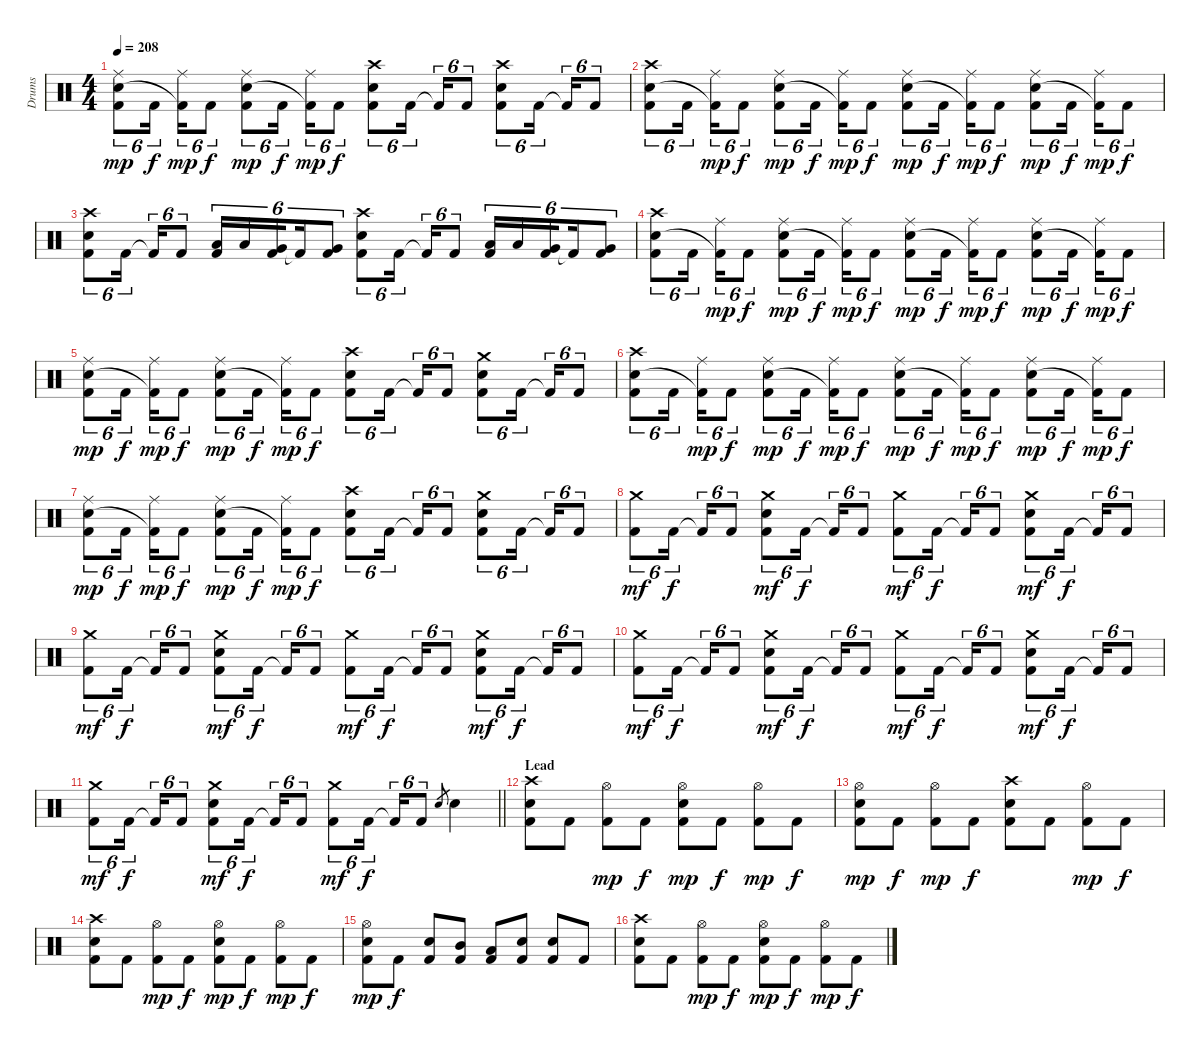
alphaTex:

\track ("Drums" "Drums") {instrument percussion}
\staff {score}
\articulation defaults
\ts (4 4)
\tempo 208
\clef neutral
\ks c
("Ride (middle)" "Electric Snare (hit)" "Kick (hit) 2").8{tu (6 4) dy mp} "Kick (hit) 2".16{tu (6 4) dy f beam splitsecondary} ("Ride (middle)" "Kick (hit) 2"{t}).16{tu (6 4) dy mp} "Kick (hit) 2".8{tu (6 4) dy f} ("Ride (middle)" "Electric Snare (hit)" "Kick (hit) 2").8{tu (6 4) dy mp} "Kick (hit) 2".16{tu (6 4) dy f beam splitsecondary} ("Ride (middle)" "Kick (hit) 2"{t}).16{tu (6 4) dy mp} "Kick (hit) 2".8{tu (6 4) dy f} ("Crash high (hit)" "Electric Snare (hit)" "Kick (hit) 2").8{tu (6 4)} "Kick (hit) 2".16{tu (6 4) beam splitsecondary} "Kick (hit) 2"{t}.16{tu (6 4)} "Kick (hit) 2".8{tu (6 4)} ("Crash high (hit)" "Electric Snare (hit)" "Kick (hit) 2").8{tu (6 4)} "Kick (hit) 2".16{tu (6 4) beam splitsecondary} "Kick (hit) 2"{t}.16{tu (6 4)} "Kick (hit) 2".8{tu (6 4)} |
("Crash high (hit)" "Electric Snare (hit)" "Kick (hit) 2").8{tu (6 4)} "Kick (hit) 2".16{tu (6 4) beam splitsecondary} ("Ride (middle)" "Kick (hit) 2"{t}).16{tu (6 4) dy mp} "Kick (hit) 2".8{tu (6 4) dy f} ("Ride (middle)" "Electric Snare (hit)" "Kick (hit) 2").8{tu (6 4) dy mp} "Kick (hit) 2".16{tu (6 4) dy f beam splitsecondary} ("Ride (middle)" "Kick (hit) 2"{t}).16{tu (6 4) dy mp} "Kick (hit) 2".8{tu (6 4) dy f} ("Ride (middle)" "Electric Snare (hit)" "Kick (hit) 2").8{tu (6 4) dy mp} "Kick (hit) 2".16{tu (6 4) dy f beam splitsecondary} ("Ride (middle)" "Kick (hit) 2"{t}).16{tu (6 4) dy mp} "Kick (hit) 2".8{tu (6 4) dy f} ("Ride (middle)" "Electric Snare (hit)" "Kick (hit) 2").8{tu (6 4) dy mp} "Kick (hit) 2".16{tu (6 4) dy f beam splitsecondary} ("Ride (middle)" "Kick (hit) 2"{t}).16{tu (6 4) dy mp} "Kick (hit) 2".8{tu (6 4) dy f} |
("Crash high (hit)" "Electric Snare (hit)" "Kick (hit) 2").8{tu (6 4)} "Kick (hit) 2".16{tu (6 4) beam splitsecondary} "Kick (hit) 2"{t}.16{tu (6 4)} "Kick (hit) 2".8{tu (6 4)} ("Low Tom (hit)" "Kick (hit) 2").16{tu (6 4)} "Low Tom (hit)".16{tu (6 4)} ("Very Low Tom (hit)" "Kick (hit) 2").16{tu (6 4) beam splitsecondary} "Kick (hit) 2"{t}.16{tu (6 4)} ("Very Low Tom (hit)" "Kick (hit) 2").8{tu (6 4)} ("Crash high (hit)" "Electric Snare (hit)" "Kick (hit) 2").8{tu (6 4)} "Kick (hit) 2".16{tu (6 4) beam splitsecondary} "Kick (hit) 2"{t}.16{tu (6 4)} "Kick (hit) 2".8{tu (6 4)} ("Low Tom (hit)" "Kick (hit) 2").16{tu (6 4)} "Low Tom (hit)".16{tu (6 4)} ("Very Low Tom (hit)" "Kick (hit) 2").16{tu (6 4) beam splitsecondary} "Kick (hit) 2"{t}.16{tu (6 4)} ("Very Low Tom (hit)" "Kick (hit) 2").8{tu (6 4)} |
("Crash high (hit)" "Electric Snare (hit)" "Kick (hit) 2").8{tu (6 4)} "Kick (hit) 2".16{tu (6 4) beam splitsecondary} ("Ride (middle)" "Kick (hit) 2"{t}).16{tu (6 4) dy mp} "Kick (hit) 2".8{tu (6 4) dy f} ("Ride (middle)" "Electric Snare (hit)" "Kick (hit) 2").8{tu (6 4) dy mp} "Kick (hit) 2".16{tu (6 4) dy f beam splitsecondary} ("Ride (middle)" "Kick (hit) 2"{t}).16{tu (6 4) dy mp} "Kick (hit) 2".8{tu (6 4) dy f} ("Ride (middle)" "Electric Snare (hit)" "Kick (hit) 2").8{tu (6 4) dy mp} "Kick (hit) 2".16{tu (6 4) dy f beam splitsecondary} ("Ride (middle)" "Kick (hit) 2"{t}).16{tu (6 4) dy mp} "Kick (hit) 2".8{tu (6 4) dy f} ("Ride (middle)" "Electric Snare (hit)" "Kick (hit) 2").8{tu (6 4) dy mp} "Kick (hit) 2".16{tu (6 4) dy f beam splitsecondary} ("Ride (middle)" "Kick (hit) 2"{t}).16{tu (6 4) dy mp} "Kick (hit) 2".8{tu (6 4) dy f} |
("Ride (middle)" "Electric Snare (hit)" "Kick (hit) 2").8{tu (6 4) dy mp} "Kick (hit) 2".16{tu (6 4) dy f beam splitsecondary} ("Ride (middle)" "Kick (hit) 2"{t}).16{tu (6 4) dy mp} "Kick (hit) 2".8{tu (6 4) dy f} ("Ride (middle)" "Electric Snare (hit)" "Kick (hit) 2").8{tu (6 4) dy mp} "Kick (hit) 2".16{tu (6 4) dy f beam splitsecondary} ("Ride (middle)" "Kick (hit) 2"{t}).16{tu (6 4) dy mp} "Kick (hit) 2".8{tu (6 4) dy f} ("Crash high (hit)" "Electric Snare (hit)" "Kick (hit) 2").8{tu (6 4)} "Kick (hit) 2".16{tu (6 4) beam splitsecondary} "Kick (hit) 2"{t}.16{tu (6 4)} "Kick (hit) 2".8{tu (6 4)} ("Crash medium (hit)" "Electric Snare (hit)" "Kick (hit) 2").8{tu (6 4)} "Kick (hit) 2".16{tu (6 4) beam splitsecondary} "Kick (hit) 2"{t}.16{tu (6 4)} "Kick (hit) 2".8{tu (6 4)} |
("Crash high (hit)" "Electric Snare (hit)" "Kick (hit) 2").8{tu (6 4)} "Kick (hit) 2".16{tu (6 4) beam splitsecondary} ("Ride (middle)" "Kick (hit) 2"{t}).16{tu (6 4) dy mp} "Kick (hit) 2".8{tu (6 4) dy f} ("Ride (middle)" "Electric Snare (hit)" "Kick (hit) 2").8{tu (6 4) dy mp} "Kick (hit) 2".16{tu (6 4) dy f beam splitsecondary} ("Ride (middle)" "Kick (hit) 2"{t}).16{tu (6 4) dy mp} "Kick (hit) 2".8{tu (6 4) dy f} ("Ride (middle)" "Electric Snare (hit)" "Kick (hit) 2").8{tu (6 4) dy mp} "Kick (hit) 2".16{tu (6 4) dy f beam splitsecondary} ("Ride (middle)" "Kick (hit) 2"{t}).16{tu (6 4) dy mp} "Kick (hit) 2".8{tu (6 4) dy f} ("Ride (middle)" "Electric Snare (hit)" "Kick (hit) 2").8{tu (6 4) dy mp} "Kick (hit) 2".16{tu (6 4) dy f beam splitsecondary} ("Ride (middle)" "Kick (hit) 2"{t}).16{tu (6 4) dy mp} "Kick (hit) 2".8{tu (6 4) dy f} |
("Ride (middle)" "Electric Snare (hit)" "Kick (hit) 2").8{tu (6 4) dy mp} "Kick (hit) 2".16{tu (6 4) dy f beam splitsecondary} ("Ride (middle)" "Kick (hit) 2"{t}).16{tu (6 4) dy mp} "Kick (hit) 2".8{tu (6 4) dy f} ("Ride (middle)" "Electric Snare (hit)" "Kick (hit) 2").8{tu (6 4) dy mp} "Kick (hit) 2".16{tu (6 4) dy f beam splitsecondary} ("Ride (middle)" "Kick (hit) 2"{t}).16{tu (6 4) dy mp} "Kick (hit) 2".8{tu (6 4) dy f} ("Crash high (hit)" "Electric Snare (hit)" "Kick (hit) 2").8{tu (6 4)} "Kick (hit) 2".16{tu (6 4) beam splitsecondary} "Kick (hit) 2"{t}.16{tu (6 4)} "Kick (hit) 2".8{tu (6 4)} ("Crash medium (hit)" "Electric Snare (hit)" "Kick (hit) 2").8{tu (6 4)} "Kick (hit) 2".16{tu (6 4) beam splitsecondary} "Kick (hit) 2"{t}.16{tu (6 4)} "Kick (hit) 2".8{tu (6 4)} |
("Crash medium (hit)" "Kick (hit) 2").8{tu (6 4) dy mf} "Kick (hit) 2".16{tu (6 4) dy f beam splitsecondary} "Kick (hit) 2"{t}.16{tu (6 4)} "Kick (hit) 2".8{tu (6 4)} ("Crash medium (hit)" "Electric Snare (hit)" "Kick (hit) 2").8{tu (6 4) dy mf} "Kick (hit) 2".16{tu (6 4) dy f beam splitsecondary} "Kick (hit) 2"{t}.16{tu (6 4)} "Kick (hit) 2".8{tu (6 4)} ("Crash medium (hit)" "Kick (hit) 2").8{tu (6 4) dy mf} "Kick (hit) 2".16{tu (6 4) dy f beam splitsecondary} "Kick (hit) 2"{t}.16{tu (6 4)} "Kick (hit) 2".8{tu (6 4)} ("Crash medium (hit)" "Electric Snare (hit)" "Kick (hit) 2").8{tu (6 4) dy mf} "Kick (hit) 2".16{tu (6 4) dy f beam splitsecondary} "Kick (hit) 2"{t}.16{tu (6 4)} "Kick (hit) 2".8{tu (6 4)} |
("Crash medium (hit)" "Kick (hit) 2").8{tu (6 4) dy mf} "Kick (hit) 2".16{tu (6 4) dy f beam splitsecondary} "Kick (hit) 2"{t}.16{tu (6 4)} "Kick (hit) 2".8{tu (6 4)} ("Crash medium (hit)" "Electric Snare (hit)" "Kick (hit) 2").8{tu (6 4) dy mf} "Kick (hit) 2".16{tu (6 4) dy f beam splitsecondary} "Kick (hit) 2"{t}.16{tu (6 4)} "Kick (hit) 2".8{tu (6 4)} ("Crash medium (hit)" "Kick (hit) 2").8{tu (6 4) dy mf} "Kick (hit) 2".16{tu (6 4) dy f beam splitsecondary} "Kick (hit) 2"{t}.16{tu (6 4)} "Kick (hit) 2".8{tu (6 4)} ("Crash medium (hit)" "Electric Snare (hit)" "Kick (hit) 2").8{tu (6 4) dy mf} "Kick (hit) 2".16{tu (6 4) dy f beam splitsecondary} "Kick (hit) 2"{t}.16{tu (6 4)} "Kick (hit) 2".8{tu (6 4)} |
("Crash medium (hit)" "Kick (hit) 2").8{tu (6 4) dy mf} "Kick (hit) 2".16{tu (6 4) dy f beam splitsecondary} "Kick (hit) 2"{t}.16{tu (6 4)} "Kick (hit) 2".8{tu (6 4)} ("Crash medium (hit)" "Electric Snare (hit)" "Kick (hit) 2").8{tu (6 4) dy mf} "Kick (hit) 2".16{tu (6 4) dy f beam splitsecondary} "Kick (hit) 2"{t}.16{tu (6 4)} "Kick (hit) 2".8{tu (6 4)} ("Crash medium (hit)" "Kick (hit) 2").8{tu (6 4) dy mf} "Kick (hit) 2".16{tu (6 4) dy f beam splitsecondary} "Kick (hit) 2"{t}.16{tu (6 4)} "Kick (hit) 2".8{tu (6 4)} ("Crash medium (hit)" "Electric Snare (hit)" "Kick (hit) 2").8{tu (6 4) dy mf} "Kick (hit) 2".16{tu (6 4) dy f beam splitsecondary} "Kick (hit) 2"{t}.16{tu (6 4)} "Kick (hit) 2".8{tu (6 4)} |
\barLineRight lightlight
("Crash medium (hit)" "Kick (hit) 2").8{tu (6 4) dy mf} "Kick (hit) 2".16{tu (6 4) dy f beam splitsecondary} "Kick (hit) 2"{t}.16{tu (6 4)} "Kick (hit) 2".8{tu (6 4)} ("Crash medium (hit)" "Electric Snare (hit)" "Kick (hit) 2").8{tu (6 4) dy mf} "Kick (hit) 2".16{tu (6 4) dy f beam splitsecondary} "Kick (hit) 2"{t}.16{tu (6 4)} "Kick (hit) 2".8{tu (6 4)} ("Crash medium (hit)" "Kick (hit) 2").8{tu (6 4) dy mf} "Kick (hit) 2".16{tu (6 4) dy f beam splitsecondary} "Kick (hit) 2"{t}.16{tu (6 4)} "Kick (hit) 2".8{tu (6 4)} "Electric Snare (hit)".8{gr} "Electric Snare (hit)".4 |
\section ("" "Lead")
("Crash high (hit)" "Electric Snare (hit)" "Kick (hit) 2").8 "Kick (hit) 2".8 ("Hi-Hat (open)" "Kick (hit) 2").8{dy mp} "Kick (hit) 2".8{dy f} ("Hi-Hat (open)" "Electric Snare (hit)" "Kick (hit) 2").8{dy mp} "Kick (hit) 2".8{dy f} ("Hi-Hat (open)" "Kick (hit) 2").8{dy mp} "Kick (hit) 2".8{dy f} |
("Hi-Hat (open)" "Electric Snare (hit)" "Kick (hit) 2").8{dy mp} "Kick (hit) 2".8{dy f} ("Hi-Hat (open)" "Kick (hit) 2").8{dy mp} "Kick (hit) 2".8{dy f} ("Crash high (hit)" "Electric Snare (hit)" "Kick (hit) 2").8 "Kick (hit) 2".8 ("Hi-Hat (open)" "Kick (hit) 2").8{dy mp} "Kick (hit) 2".8{dy f} |
("Crash high (hit)" "Electric Snare (hit)" "Kick (hit) 2").8 "Kick (hit) 2".8 ("Hi-Hat (open)" "Kick (hit) 2").8{dy mp} "Kick (hit) 2".8{dy f} ("Hi-Hat (open)" "Electric Snare (hit)" "Kick (hit) 2").8{dy mp} "Kick (hit) 2".8{dy f} ("Hi-Hat (open)" "Kick (hit) 2").8{dy mp} "Kick (hit) 2".8{dy f} |
("Hi-Hat (open)" "Electric Snare (hit)" "Kick (hit) 2").8{dy mp} "Kick (hit) 2".8{dy f} ("Electric Snare (hit)" "Kick (hit) 2").8 ("Mid Tom (hit)" "Kick (hit) 2").8 ("Low Tom (hit)" "Kick (hit) 2").8 ("Electric Snare (hit)" "Kick (hit) 2").8 ("Electric Snare (hit)" "Kick (hit) 2").8 "Kick (hit) 2".8 |
("Crash high (hit)" "Electric Snare (hit)" "Kick (hit) 2").8 "Kick (hit) 2".8 ("Hi-Hat (open)" "Kick (hit) 2").8{dy mp} "Kick (hit) 2".8{dy f} ("Hi-Hat (open)" "Electric Snare (hit)" "Kick (hit) 2").8{dy mp} "Kick (hit) 2".8{dy f} ("Hi-Hat (open)" "Kick (hit) 2").8{dy mp} "Kick (hit) 2".8{dy f}
